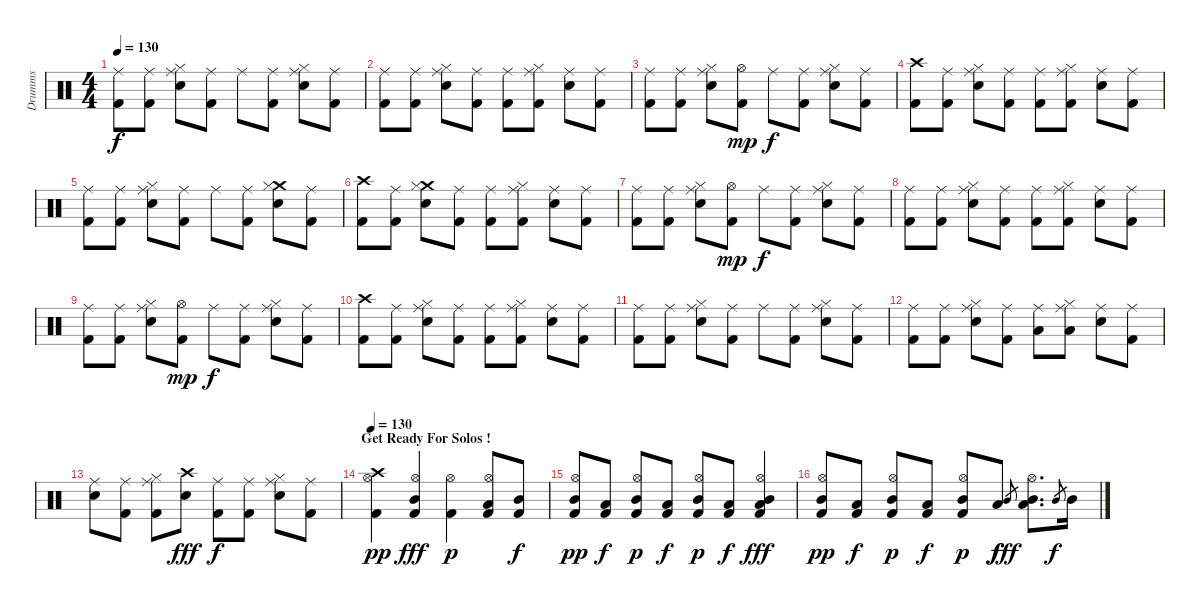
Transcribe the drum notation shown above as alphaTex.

\track ("Drumms" "Drumms") {instrument percussion}
\staff {score}
\articulation defaults
\ts (4 4)
\tempo 130
\clef neutral
\ks c
("Ride (middle)" "Kick (hit) 2").8{dy f} ("Ride (middle)" "Kick (hit) 2").8 ("Ride (middle)" "Hi-Hat (closed)" "Electric Snare (hit)").8 ("Ride (middle)" "Kick (hit) 2").8 "Ride (middle)".8 ("Ride (middle)" "Kick (hit) 2").8 ("Ride (middle)" "Hi-Hat (closed)" "Electric Snare (hit)").8 ("Ride (middle)" "Kick (hit) 2").8 |
("Ride (middle)" "Kick (hit) 2").8 ("Ride (middle)" "Kick (hit) 2").8 ("Ride (middle)" "Hi-Hat (closed)" "Electric Snare (hit)").8 ("Ride (middle)" "Kick (hit) 2").8 ("Ride (middle)" "Kick (hit) 2").8 ("Ride (middle)" "Hi-Hat (closed)" "Kick (hit) 2").8 ("Ride (middle)" "Electric Snare (hit)").8 ("Ride (middle)" "Kick (hit) 2").8 |
("Ride (middle)" "Kick (hit) 2").8 ("Ride (middle)" "Kick (hit) 2").8 ("Ride (middle)" "Hi-Hat (closed)" "Electric Snare (hit)").8 ("Hi-Hat (open)" "Kick (hit) 2").8{dy mp} "Ride (middle)".8{dy f} ("Ride (middle)" "Kick (hit) 2").8 ("Ride (middle)" "Hi-Hat (closed)" "Electric Snare (hit)").8 ("Ride (middle)" "Kick (hit) 2").8 |
("Crash high (hit)" "Kick (hit) 2").8 ("Ride (middle)" "Kick (hit) 2").8 ("Ride (middle)" "Hi-Hat (closed)" "Electric Snare (hit)").8 ("Ride (middle)" "Kick (hit) 2").8 ("Ride (middle)" "Kick (hit) 2").8 ("Ride (middle)" "Hi-Hat (closed)" "Kick (hit) 2").8 ("Ride (middle)" "Electric Snare (hit)").8 ("Ride (middle)" "Kick (hit) 2").8 |
("Ride (middle)" "Kick (hit) 2").8 ("Ride (middle)" "Kick (hit) 2").8 ("Ride (middle)" "Hi-Hat (closed)" "Electric Snare (hit)").8 ("Ride (middle)" "Kick (hit) 2").8 "Ride (middle)".8 ("Ride (middle)" "Kick (hit) 2").8 ("Crash medium (hit)" "Hi-Hat (closed)" "Electric Snare (hit)").8 ("Ride (middle)" "Kick (hit) 2").8 |
("Crash high (hit)" "Kick (hit) 2").8 ("Ride (middle)" "Kick (hit) 2").8 ("Crash medium (hit)" "Hi-Hat (closed)" "Electric Snare (hit)").8 ("Ride (middle)" "Kick (hit) 2").8 ("Ride (middle)" "Kick (hit) 2").8 ("Ride (middle)" "Hi-Hat (closed)" "Kick (hit) 2").8 ("Ride (middle)" "Electric Snare (hit)").8 ("Ride (middle)" "Kick (hit) 2").8 |
("Ride (middle)" "Kick (hit) 2").8 ("Ride (middle)" "Kick (hit) 2").8 ("Ride (middle)" "Hi-Hat (closed)" "Electric Snare (hit)").8 ("Hi-Hat (open)" "Kick (hit) 2").8{dy mp} "Ride (middle)".8{dy f} ("Ride (middle)" "Kick (hit) 2").8 ("Ride (middle)" "Hi-Hat (closed)" "Electric Snare (hit)").8 ("Ride (middle)" "Kick (hit) 2").8 |
("Ride (middle)" "Kick (hit) 2").8 ("Ride (middle)" "Kick (hit) 2").8 ("Ride (middle)" "Hi-Hat (closed)" "Electric Snare (hit)").8 ("Ride (middle)" "Kick (hit) 2").8 ("Ride (middle)" "Kick (hit) 2").8 ("Ride (middle)" "Hi-Hat (closed)" "Kick (hit) 2").8 ("Ride (middle)" "Electric Snare (hit)").8 ("Ride (middle)" "Kick (hit) 2").8 |
("Ride (middle)" "Kick (hit) 2").8 ("Ride (middle)" "Kick (hit) 2").8 ("Ride (middle)" "Hi-Hat (closed)" "Electric Snare (hit)").8 ("Hi-Hat (open)" "Kick (hit) 2").8{dy mp} "Ride (middle)".8{dy f} ("Ride (middle)" "Kick (hit) 2").8 ("Ride (middle)" "Hi-Hat (closed)" "Electric Snare (hit)").8 ("Ride (middle)" "Kick (hit) 2").8 |
("Crash high (hit)" "Kick (hit) 2").8 ("Ride (middle)" "Kick (hit) 2").8 ("Ride (middle)" "Hi-Hat (closed)" "Electric Snare (hit)").8 ("Ride (middle)" "Kick (hit) 2").8 ("Ride (middle)" "Kick (hit) 2").8 ("Ride (middle)" "Hi-Hat (closed)" "Kick (hit) 2").8 ("Ride (middle)" "Electric Snare (hit)").8 ("Ride (middle)" "Kick (hit) 2").8 |
("Ride (middle)" "Kick (hit) 2").8 ("Ride (middle)" "Kick (hit) 2").8 ("Ride (middle)" "Hi-Hat (closed)" "Electric Snare (hit)").8 ("Ride (middle)" "Kick (hit) 2").8 "Ride (middle)".8 ("Ride (middle)" "Kick (hit) 2").8 ("Ride (middle)" "Hi-Hat (closed)" "Electric Snare (hit)").8 ("Ride (middle)" "Kick (hit) 2").8 |
("Ride (middle)" "Kick (hit) 2").8 ("Ride (middle)" "Kick (hit) 2").8 ("Ride (middle)" "Hi-Hat (closed)" "Electric Snare (hit)").8 ("Ride (middle)" "Kick (hit) 2").8 ("Ride (middle)" "Low Tom (hit)").8 ("Ride (middle)" "Hi-Hat (closed)" "Low Tom (hit)").8 ("Ride (middle)" "Electric Snare (hit)").8 ("Ride (middle)" "Kick (hit) 2").8 |
("Ride (middle)" "Electric Snare (hit)").8 ("Ride (middle)" "Kick (hit) 2").8 ("Ride (middle)" "Hi-Hat (closed)" "Kick (hit) 2").8 ("Crash high (hit)" "Electric Snare (hit)").8{dy fff} ("Ride (middle)" "Kick (hit) 2").8{dy f} ("Ride (middle)" "Kick (hit) 2").8 ("Ride (middle)" "Hi-Hat (closed)" "Electric Snare (hit)").8 ("Ride (middle)" "Kick (hit) 2").8 |
\section ("" "Get Ready For Solos ! ")
\tempo 130
("Crash high (hit)" "Hi-Hat (open)" "Kick (hit) 2").4{dy pp} ("Hi-Hat (open)" "Kick (hit) 2" "Mid Tom (hit)").4{dy fff} ("Hi-Hat (open)" "Kick (hit) 2").4{dy p} ("Hi-Hat (open)" "Kick (hit) 2" "Low Tom (hit)").8 ("Kick (hit) 2" "Mid Tom (hit)").8{dy f} |
("Hi-Hat (open)" "Kick (hit) 2" "Mid Tom (hit)").8{dy pp} ("Kick (hit) 2" "Low Tom (hit)").8{dy f} ("Hi-Hat (open)" "Kick (hit) 2" "Mid Tom (hit)").8{dy p} ("Kick (hit) 2" "Low Tom (hit)").8{dy f} ("Hi-Hat (open)" "Kick (hit) 2" "Mid Tom (hit)").8{dy p} ("Kick (hit) 2" "Low Tom (hit)").8{dy f} ("Hi-Hat (open)" "Kick (hit) 2" "Mid Tom (hit)" "Low Tom (hit)").4{dy fff} |
("Hi-Hat (open)" "Kick (hit) 2" "Mid Tom (hit)").8{dy pp} ("Kick (hit) 2" "Low Tom (hit)").8{dy f} ("Hi-Hat (open)" "Kick (hit) 2" "Mid Tom (hit)").8{dy p} ("Kick (hit) 2" "Low Tom (hit)").8{dy f} ("Hi-Hat (open)" "Kick (hit) 2" "Mid Tom (hit)").8{dy p} "Low Tom (hit)".8{dy f} "Mid Tom (hit)".8{gr dy fff} ("Hi-Hat (open)" "Mid Tom (hit)" "Low Tom (hit)").8{d} "Mid Tom (hit)".8{gr dy f} "Mid Tom (hit)".16
